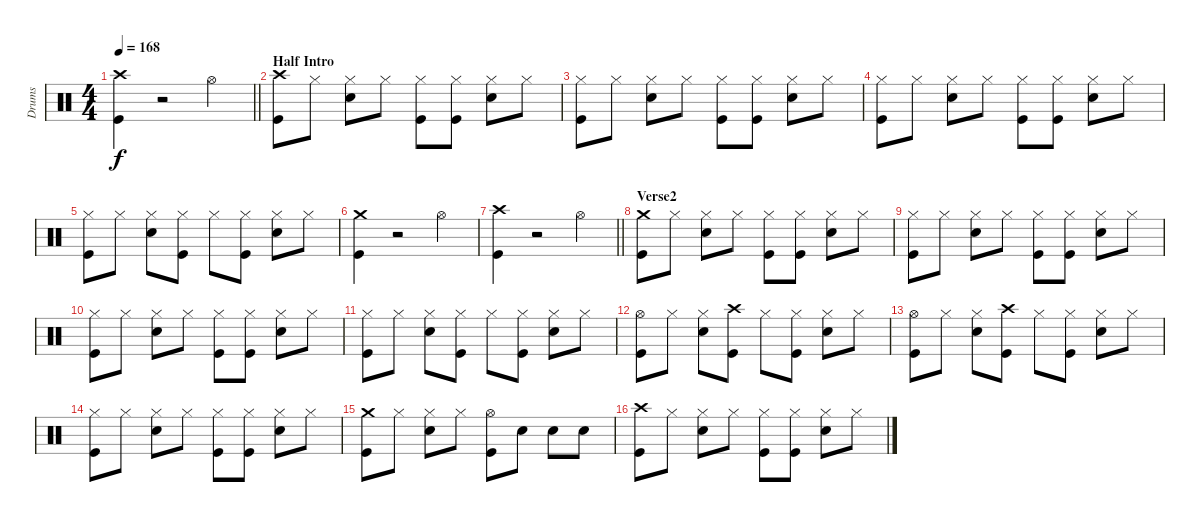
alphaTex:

\track ("Drums" "Drums") {instrument percussion}
\staff {score}
\articulation defaults
\ts (4 4)
\tempo 168
\clef neutral
\barLineRight lightlight
\ks c
("Crash high (hit)" "Kick (hit)").4{dy f} r.2 "Hi-Hat (open)".4 |
\section ("" "Half Intro")
("Crash high (hit)" "Kick (hit)").8 "Hi-Hat (closed)".8 ("Hi-Hat (closed)" "Snare (hit) 2").8 "Hi-Hat (closed)".8 ("Hi-Hat (closed)" "Kick (hit)").8 ("Hi-Hat (closed)" "Kick (hit)").8 ("Hi-Hat (closed)" "Snare (hit) 2").8 "Hi-Hat (closed)".8 |
("Hi-Hat (closed)" "Kick (hit)").8 "Hi-Hat (closed)".8 ("Hi-Hat (closed)" "Snare (hit) 2").8 "Hi-Hat (closed)".8 ("Hi-Hat (closed)" "Kick (hit)").8 ("Hi-Hat (closed)" "Kick (hit)").8 ("Hi-Hat (closed)" "Snare (hit) 2").8 "Hi-Hat (closed)".8 |
("Hi-Hat (closed)" "Kick (hit)").8 "Hi-Hat (closed)".8 ("Hi-Hat (closed)" "Snare (hit) 2").8 "Hi-Hat (closed)".8 ("Hi-Hat (closed)" "Kick (hit)").8 ("Hi-Hat (closed)" "Kick (hit)").8 ("Hi-Hat (closed)" "Snare (hit) 2").8 "Hi-Hat (closed)".8 |
("Hi-Hat (closed)" "Kick (hit)").8 "Hi-Hat (closed)".8 ("Hi-Hat (closed)" "Snare (hit) 2").8 ("Hi-Hat (closed)" "Kick (hit)").8 "Hi-Hat (closed)".8 ("Hi-Hat (closed)" "Kick (hit)").8 ("Hi-Hat (closed)" "Snare (hit) 2").8 "Hi-Hat (closed)".8 |
("Crash medium (hit)" "Kick (hit)").4 r.2 "Hi-Hat (open)".4 |
\barLineRight lightlight
("Crash high (hit)" "Kick (hit)").4 r.2 "Hi-Hat (open)".4 |
\section ("" "Verse2")
("Crash medium (hit)" "Kick (hit)").8 "Hi-Hat (closed)".8 ("Hi-Hat (closed)" "Snare (hit) 2").8 "Hi-Hat (closed)".8 ("Hi-Hat (closed)" "Kick (hit)").8 ("Hi-Hat (closed)" "Kick (hit)").8 ("Hi-Hat (closed)" "Snare (hit) 2").8 "Hi-Hat (closed)".8 |
("Hi-Hat (closed)" "Kick (hit)").8 "Hi-Hat (closed)".8 ("Hi-Hat (closed)" "Snare (hit) 2").8 "Hi-Hat (closed)".8 ("Hi-Hat (closed)" "Kick (hit)").8 ("Hi-Hat (closed)" "Kick (hit)").8 ("Hi-Hat (closed)" "Snare (hit) 2").8 "Hi-Hat (closed)".8 |
("Hi-Hat (closed)" "Kick (hit)").8 "Hi-Hat (closed)".8 ("Hi-Hat (closed)" "Snare (hit) 2").8 "Hi-Hat (closed)".8 ("Hi-Hat (closed)" "Kick (hit)").8 ("Hi-Hat (closed)" "Kick (hit)").8 ("Hi-Hat (closed)" "Snare (hit) 2").8 "Hi-Hat (closed)".8 |
("Hi-Hat (closed)" "Kick (hit)").8 "Hi-Hat (closed)".8 ("Hi-Hat (closed)" "Snare (hit) 2").8 ("Hi-Hat (closed)" "Kick (hit)").8 "Hi-Hat (closed)".8 ("Hi-Hat (closed)" "Kick (hit)").8 ("Hi-Hat (closed)" "Snare (hit) 2").8 "Hi-Hat (closed)".8 |
("Hi-Hat (open)" "Kick (hit)").8 "Hi-Hat (closed)".8 ("Hi-Hat (closed)" "Snare (hit) 2").8 ("Crash high (hit)" "Kick (hit)").8 "Hi-Hat (closed)".8 ("Hi-Hat (closed)" "Kick (hit)").8 ("Hi-Hat (closed)" "Snare (hit) 2").8 "Hi-Hat (closed)".8 |
("Hi-Hat (open)" "Kick (hit)").8 "Hi-Hat (closed)".8 ("Hi-Hat (closed)" "Snare (hit) 2").8 ("Crash high (hit)" "Kick (hit)").8 "Hi-Hat (closed)".8 ("Hi-Hat (closed)" "Kick (hit)").8 ("Hi-Hat (closed)" "Snare (hit) 2").8 "Hi-Hat (closed)".8 |
("Hi-Hat (closed)" "Kick (hit)").8 "Hi-Hat (closed)".8 ("Hi-Hat (closed)" "Snare (hit) 2").8 "Hi-Hat (closed)".8 ("Hi-Hat (closed)" "Kick (hit)").8 ("Hi-Hat (closed)" "Kick (hit)").8 ("Hi-Hat (closed)" "Snare (hit) 2").8 "Hi-Hat (closed)".8 |
("Crash medium (hit)" "Kick (hit)").8 "Hi-Hat (closed)".8 ("Hi-Hat (closed)" "Snare (hit) 2").8 "Hi-Hat (closed)".8 ("Hi-Hat (open)" "Kick (hit)").8 "Snare (hit) 2".8 "Snare (hit) 2".8 "Snare (hit) 2".8 |
("Crash high (hit)" "Kick (hit)").8 "Hi-Hat (closed)".8 ("Hi-Hat (closed)" "Snare (hit) 2").8 "Hi-Hat (closed)".8 ("Hi-Hat (closed)" "Kick (hit)").8 ("Hi-Hat (closed)" "Kick (hit)").8 ("Hi-Hat (closed)" "Snare (hit) 2").8 "Hi-Hat (closed)".8
